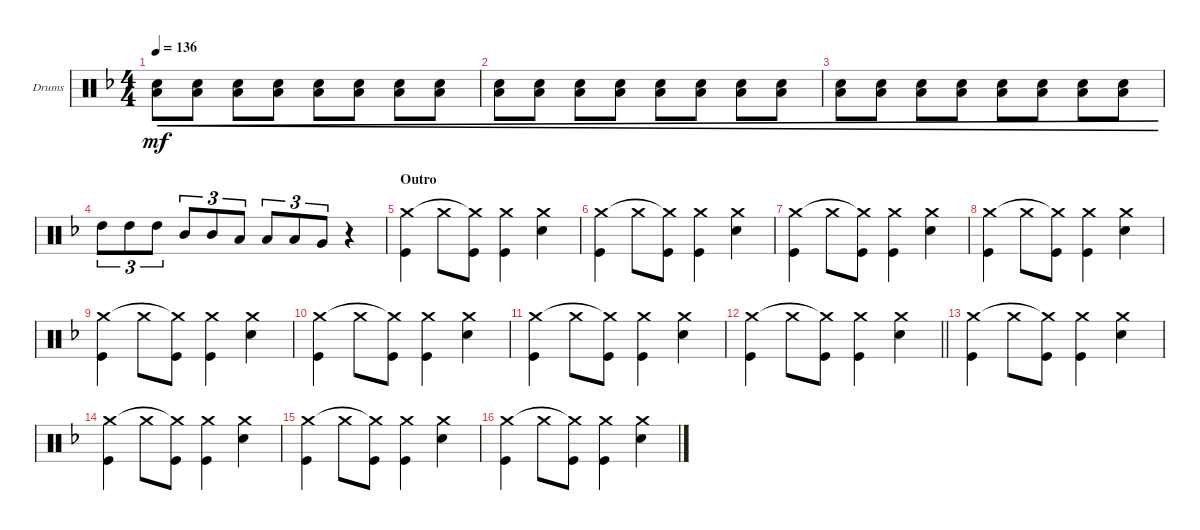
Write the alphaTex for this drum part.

\bracketExtendMode groupsimilarinstruments
\firstSystemTrackNameOrientation horizontal
\otherSystemsTrackNameOrientation horizontal
\track ("Drumkit" "Drums") {instrument percussion}
\staff {score}
\articulation defaults
\ts (4 4)
\tempo 136
\clef neutral
\scale
0.333333
\ks f
("Low Tom (hit)" "Snare (hit) 2").8{cre dy mf} ("Low Tom (hit)" "Snare (hit) 2").8{cre} ("Low Tom (hit)" "Snare (hit) 2").8{cre} ("Low Tom (hit)" "Snare (hit) 2").8{cre} ("Low Tom (hit)" "Snare (hit) 2").8{cre} ("Low Tom (hit)" "Snare (hit) 2").8{cre} ("Low Tom (hit)" "Snare (hit) 2").8{cre} ("Low Tom (hit)" "Snare (hit) 2").8{cre} |
\scale
0.333333 ("Low Tom (hit)" "Snare (hit) 2").8{cre} ("Low Tom (hit)" "Snare (hit) 2").8{cre} ("Low Tom (hit)" "Snare (hit) 2").8{cre} ("Low Tom (hit)" "Snare (hit) 2").8{cre} ("Low Tom (hit)" "Snare (hit) 2").8{cre} ("Low Tom (hit)" "Snare (hit) 2").8{cre} ("Low Tom (hit)" "Snare (hit) 2").8{cre} ("Low Tom (hit)" "Snare (hit) 2").8{cre} |
\scale
0.333333 ("Low Tom (hit)" "Snare (hit) 2").8{cre} ("Low Tom (hit)" "Snare (hit) 2").8{cre} ("Low Tom (hit)" "Snare (hit) 2").8{cre} ("Low Tom (hit)" "Snare (hit) 2").8{cre} ("Low Tom (hit)" "Snare (hit) 2").8{cre} ("Low Tom (hit)" "Snare (hit) 2").8{cre} ("Low Tom (hit)" "Snare (hit) 2").8{cre} ("Low Tom (hit)" "Snare (hit) 2").8{cre} |
\scale
0.333333 "High Tom (hit)".8{tu (3 2)} "High Tom (hit)".8{tu (3 2)} "High Tom (hit)".8{tu (3 2)} "Mid Tom (hit)".8{tu (3 2)} "Mid Tom (hit)".8{tu (3 2)} "Low Tom (hit)".8{tu (3 2)} "Low Tom (hit)".8{tu (3 2)} "Low Tom (hit)".8{tu (3 2)} "Very Low Tom (hit)".8{tu (3 2)} r.4 |
\section ("" "Outro")
\scale
0.377778 ("Kick (hit)" "Crash medium (hit)").4 "Crash medium (hit)".8 ("Kick (hit)" "Crash medium (hit)"{t}).8 ("Kick (hit)" "Crash medium (hit)").4 ("Snare (hit) 2" "Crash medium (hit)").4 |
\scale
0.311111 ("Kick (hit)" "Crash medium (hit)").4 "Crash medium (hit)".8 ("Kick (hit)" "Crash medium (hit)"{t}).8 ("Kick (hit)" "Crash medium (hit)").4 ("Snare (hit) 2" "Crash medium (hit)").4 |
\scale
0.311111 ("Kick (hit)" "Crash medium (hit)").4 "Crash medium (hit)".8 ("Kick (hit)" "Crash medium (hit)"{t}).8 ("Kick (hit)" "Crash medium (hit)").4 ("Snare (hit) 2" "Crash medium (hit)").4 |
\scale
0.333333 ("Kick (hit)" "Crash medium (hit)").4 "Crash medium (hit)".8 ("Kick (hit)" "Crash medium (hit)"{t}).8 ("Kick (hit)" "Crash medium (hit)").4 ("Snare (hit) 2" "Crash medium (hit)").4 |
\scale
0.333333 ("Kick (hit)" "Crash medium (hit)").4 "Crash medium (hit)".8 ("Kick (hit)" "Crash medium (hit)"{t}).8 ("Kick (hit)" "Crash medium (hit)").4 ("Snare (hit) 2" "Crash medium (hit)").4 |
\scale
0.333333 ("Kick (hit)" "Crash medium (hit)").4 "Crash medium (hit)".8 ("Kick (hit)" "Crash medium (hit)"{t}).8 ("Kick (hit)" "Crash medium (hit)").4 ("Snare (hit) 2" "Crash medium (hit)").4 |
\scale
0.321839 ("Kick (hit)" "Crash medium (hit)").4 "Crash medium (hit)".8 ("Kick (hit)" "Crash medium (hit)"{t}).8 ("Kick (hit)" "Crash medium (hit)").4 ("Snare (hit) 2" "Crash medium (hit)").4 |
\scale
0.356322
\barLineRight lightlight
("Kick (hit)" "Crash medium (hit)").4 "Crash medium (hit)".8 ("Kick (hit)" "Crash medium (hit)"{t}).8 ("Kick (hit)" "Crash medium (hit)").4 ("Snare (hit) 2" "Crash medium (hit)").4 |
\scale
0.321839 ("Kick (hit)" "Crash medium (hit)").4 "Crash medium (hit)".8 ("Kick (hit)" "Crash medium (hit)"{t}).8 ("Kick (hit)" "Crash medium (hit)").4 ("Snare (hit) 2" "Crash medium (hit)").4 |
\scale
0.333333 ("Kick (hit)" "Crash medium (hit)").4 "Crash medium (hit)".8 ("Kick (hit)" "Crash medium (hit)"{t}).8 ("Kick (hit)" "Crash medium (hit)").4 ("Snare (hit) 2" "Crash medium (hit)").4 |
\scale
0.333333 ("Kick (hit)" "Crash medium (hit)").4 "Crash medium (hit)".8 ("Kick (hit)" "Crash medium (hit)"{t}).8 ("Kick (hit)" "Crash medium (hit)").4 ("Snare (hit) 2" "Crash medium (hit)").4 |
\scale
0.333333 ("Kick (hit)" "Crash medium (hit)").4 "Crash medium (hit)".8 ("Kick (hit)" "Crash medium (hit)"{t}).8 ("Kick (hit)" "Crash medium (hit)").4 ("Snare (hit) 2" "Crash medium (hit)").4
